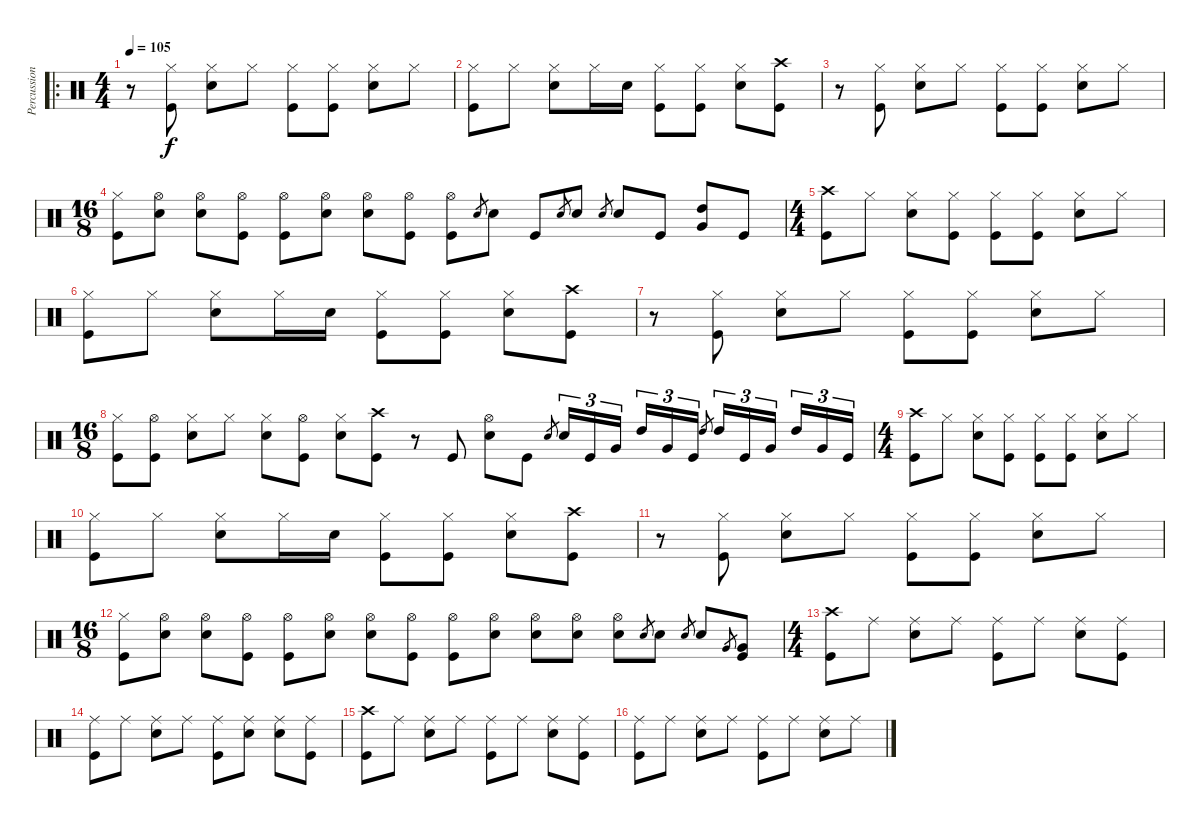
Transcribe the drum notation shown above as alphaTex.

\track ("Percussions" "Percussion") {instrument percussion}
\staff {score}
\articulation defaults
\ro
\ts (4 4)
\tempo 105
\clef neutral
\ks c
r.8{dy f} ("Hi-Hat (closed)" "Kick (hit)").8 ("Snare (hit) 2" "Hi-Hat (closed)").8 "Hi-Hat (closed)".8 ("Kick (hit)" "Hi-Hat (closed)").8 ("Kick (hit)" "Hi-Hat (closed)").8 ("Snare (hit) 2" "Hi-Hat (closed)").8 "Hi-Hat (closed)".8 |
("Kick (hit)" "Hi-Hat (closed)").8 "Hi-Hat (closed)".8 ("Snare (hit) 2" "Hi-Hat (closed)").8 "Hi-Hat (closed)".16 "Snare (hit) 2".16 ("Kick (hit)" "Hi-Hat (closed)").8 ("Kick (hit)" "Hi-Hat (closed)").8 ("Snare (hit) 2" "Hi-Hat (closed)").8 ("Kick (hit)" "Crash high (hit)").8 |
r.8 ("Hi-Hat (closed)" "Kick (hit)").8 ("Snare (hit) 2" "Hi-Hat (closed)").8 "Hi-Hat (closed)".8 ("Kick (hit)" "Hi-Hat (closed)").8 ("Kick (hit)" "Hi-Hat (closed)").8 ("Snare (hit) 2" "Hi-Hat (closed)").8 "Hi-Hat (closed)".8 |
\ts (16 8)
("Hi-Hat (closed)" "Kick (hit)").8 ("Snare (hit) 2" "Hi-Hat (open)").8 ("Snare (hit) 2" "Hi-Hat (open)").8 ("Kick (hit)" "Hi-Hat (open)").8 ("Kick (hit)" "Hi-Hat (open)").8 ("Snare (hit) 2" "Hi-Hat (open)").8 ("Snare (hit) 2" "Hi-Hat (open)").8 ("Kick (hit)" "Hi-Hat (open)").8 ("Kick (hit)" "Hi-Hat (open)").8 "Snare (hit) 2".8{gr} "Snare (hit) 2".8 "Kick (hit)".8 "Snare (hit) 2".8{gr} "Snare (hit) 2".8 "Snare (hit) 2".8{gr} "Snare (hit) 2".8 "Kick (hit)".8 ("High Tom (hit)" "Very Low Tom (hit)").8 "Kick (hit)".8 |
\ts (4 4)
("Kick (hit)" "Crash high (hit)").8 "Hi-Hat (closed)".8 ("Snare (hit) 2" "Hi-Hat (closed)").8 ("Hi-Hat (closed)" "Kick (hit)").8 ("Kick (hit)" "Hi-Hat (closed)").8 ("Kick (hit)" "Hi-Hat (closed)").8 ("Snare (hit) 2" "Hi-Hat (closed)").8 "Hi-Hat (closed)".8 |
("Kick (hit)" "Hi-Hat (closed)").8 "Hi-Hat (closed)".8 ("Snare (hit) 2" "Hi-Hat (closed)").8 "Hi-Hat (closed)".16 "Snare (hit) 2".16 ("Kick (hit)" "Hi-Hat (closed)").8 ("Kick (hit)" "Hi-Hat (closed)").8 ("Snare (hit) 2" "Hi-Hat (closed)").8 ("Kick (hit)" "Crash high (hit)").8 |
r.8 ("Hi-Hat (closed)" "Kick (hit)").8 ("Snare (hit) 2" "Hi-Hat (closed)").8 "Hi-Hat (closed)".8 ("Kick (hit)" "Hi-Hat (closed)").8 ("Kick (hit)" "Hi-Hat (closed)").8 ("Snare (hit) 2" "Hi-Hat (closed)").8 "Hi-Hat (closed)".8 |
\ts (16 8)
("Kick (hit)" "Hi-Hat (closed)").8 ("Kick (hit)" "Hi-Hat (open)").8 ("Snare (hit) 2" "Hi-Hat (closed)").8 "Hi-Hat (closed)".8 ("Snare (hit) 2" "Hi-Hat (closed)").8 ("Kick (hit)" "Hi-Hat (open)").8 ("Snare (hit) 2" "Hi-Hat (closed)").8 ("Kick (hit)" "Crash high (hit)").8 r.8 "Kick (hit)".8 ("Hi-Hat (open)" "Snare (hit) 2").8 "Kick (hit)".8 "Snare (hit) 2".8{gr} "Snare (hit) 2".16{tu (3 2)} "Kick (hit)".16{tu (3 2)} "Very Low Tom (hit)".16{tu (3 2)} "High Tom (hit)".16{tu (3 2)} "Very Low Tom (hit)".16{tu (3 2)} "Kick (hit)".16{tu (3 2)} "High Tom (hit)".8{gr} "High Tom (hit)".16{tu (3 2)} "Kick (hit)".16{tu (3 2)} "Very Low Tom (hit)".16{tu (3 2)} "High Tom (hit)".16{tu (3 2)} "Very Low Tom (hit)".16{tu (3 2)} "Kick (hit)".16{tu (3 2)} |
\ts (4 4)
("Kick (hit)" "Crash high (hit)").8 "Hi-Hat (closed)".8 ("Snare (hit) 2" "Hi-Hat (closed)").8 ("Hi-Hat (closed)" "Kick (hit)").8 ("Kick (hit)" "Hi-Hat (closed)").8 ("Kick (hit)" "Hi-Hat (closed)").8 ("Snare (hit) 2" "Hi-Hat (closed)").8 "Hi-Hat (closed)".8 |
("Kick (hit)" "Hi-Hat (closed)").8 "Hi-Hat (closed)".8 ("Snare (hit) 2" "Hi-Hat (closed)").8 "Hi-Hat (closed)".16 "Snare (hit) 2".16 ("Kick (hit)" "Hi-Hat (closed)").8 ("Kick (hit)" "Hi-Hat (closed)").8 ("Snare (hit) 2" "Hi-Hat (closed)").8 ("Kick (hit)" "Crash high (hit)").8 |
r.8 ("Hi-Hat (closed)" "Kick (hit)").8 ("Snare (hit) 2" "Hi-Hat (closed)").8 "Hi-Hat (closed)".8 ("Kick (hit)" "Hi-Hat (closed)").8 ("Kick (hit)" "Hi-Hat (closed)").8 ("Snare (hit) 2" "Hi-Hat (closed)").8 "Hi-Hat (closed)".8 |
\ts (16 8)
("Hi-Hat (closed)" "Kick (hit)").8 ("Snare (hit) 2" "Hi-Hat (open)").8 ("Snare (hit) 2" "Hi-Hat (open)").8 ("Kick (hit)" "Hi-Hat (open)").8 ("Kick (hit)" "Hi-Hat (open)").8 ("Snare (hit) 2" "Hi-Hat (open)").8 ("Snare (hit) 2" "Hi-Hat (open)").8 ("Kick (hit)" "Hi-Hat (open)").8 ("Kick (hit)" "Hi-Hat (open)").8 ("Snare (hit) 2" "Hi-Hat (open)").8 ("Snare (hit) 2" "Hi-Hat (open)").8 ("Snare (hit) 2" "Hi-Hat (open)").8 ("Snare (hit) 2" "Hi-Hat (open)").8 "Snare (hit) 2".8{gr} "Snare (hit) 2".8 "Snare (hit) 2".8{gr} "Snare (hit) 2".8 "Very Low Tom (hit)".8{gr} ("Kick (hit)" "Very Low Tom (hit)").8 |
\ts (4 4)
("Crash high (hit)" "Kick (hit)").8 "Ride (middle)".8 ("Snare (hit) 2" "Ride (middle)").8 "Ride (middle)".8 ("Kick (hit)" "Ride (middle)").8 "Ride (middle)".8 ("Snare (hit) 2" "Ride (middle)").8 ("Ride (middle)" "Kick (hit)").8 |
("Kick (hit)" "Ride (middle)").8 "Ride (middle)".8 ("Snare (hit) 2" "Ride (middle)").8 "Ride (middle)".8 ("Kick (hit)" "Ride (middle)").8 ("Snare (hit) 2" "Ride (middle)").8 ("Snare (hit) 2" "Ride (middle)").8 ("Kick (hit)" "Ride (middle)").8 |
("Crash high (hit)" "Kick (hit)").8 "Ride (middle)".8 ("Snare (hit) 2" "Ride (middle)").8 "Ride (middle)".8 ("Kick (hit)" "Ride (middle)").8 "Ride (middle)".8 ("Snare (hit) 2" "Ride (middle)").8 ("Ride (middle)" "Kick (hit)").8 |
("Kick (hit)" "Ride (middle)").8 "Ride (middle)".8 ("Snare (hit) 2" "Ride (middle)").8 "Ride (middle)".8 ("Kick (hit)" "Ride (middle)").8 "Ride (middle)".8 ("Snare (hit) 2" "Ride (middle)").8 "Ride (middle)".8
